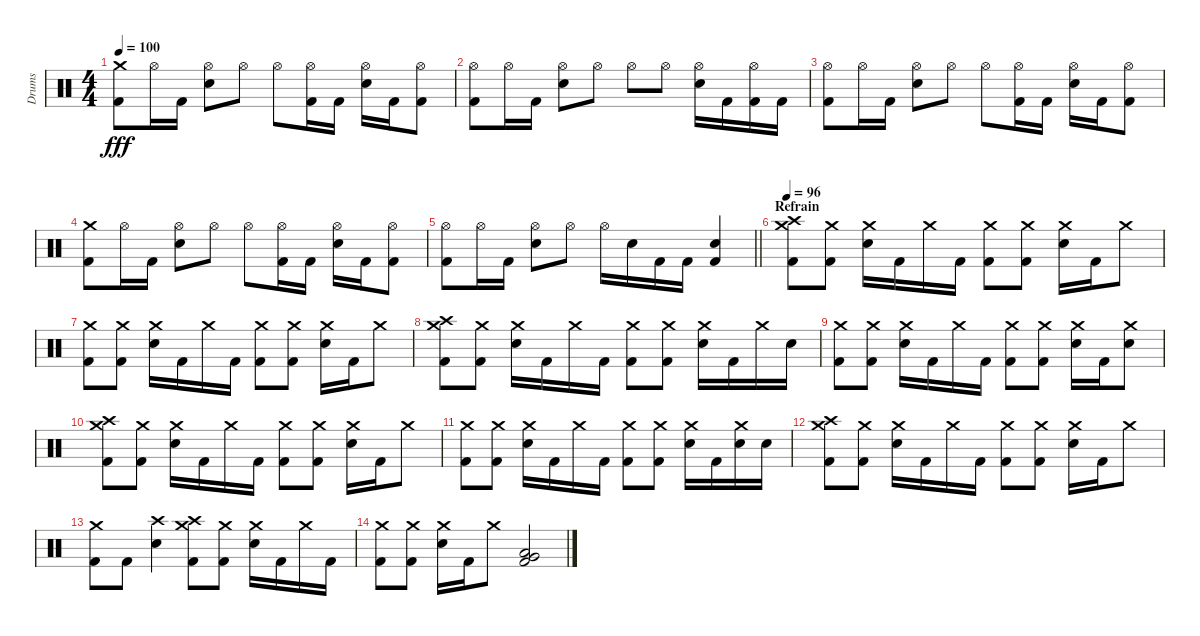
\track ("Drums" "Drums") {instrument percussion}
\staff {score}
\articulation defaults
\ts (4 4)
\tempo 100
\clef neutral
\ks c
("Crash medium (hit)" "Kick (hit) 2").8{dy fff} "Hi-Hat (open)".16 "Kick (hit) 2".16 ("Hi-Hat (open)" "Electric Snare (hit)").8 "Hi-Hat (open)".8 "Hi-Hat (open)".8 ("Hi-Hat (open)" "Kick (hit) 2").16 "Kick (hit) 2".16 ("Hi-Hat (open)" "Electric Snare (hit)").16 "Kick (hit) 2".16 ("Hi-Hat (open)" "Kick (hit) 2").8 |
("Hi-Hat (open)" "Kick (hit) 2").8 "Hi-Hat (open)".16 "Kick (hit) 2".16 ("Hi-Hat (open)" "Electric Snare (hit)").8 "Hi-Hat (open)".8 "Hi-Hat (open)".8 "Hi-Hat (open)".8 ("Hi-Hat (open)" "Electric Snare (hit)").16 "Kick (hit) 2".16 ("Hi-Hat (open)" "Kick (hit) 2").16 "Kick (hit) 2".16 |
("Hi-Hat (open)" "Kick (hit) 2").8 "Hi-Hat (open)".16 "Kick (hit) 2".16 ("Hi-Hat (open)" "Electric Snare (hit)").8 "Hi-Hat (open)".8 "Hi-Hat (open)".8 ("Hi-Hat (open)" "Kick (hit) 2").16 "Kick (hit) 2".16 ("Hi-Hat (open)" "Electric Snare (hit)").16 "Kick (hit) 2".16 ("Hi-Hat (open)" "Kick (hit) 2").8 |
("Crash medium (hit)" "Kick (hit) 2").8 "Hi-Hat (open)".16 "Kick (hit) 2".16 ("Hi-Hat (open)" "Electric Snare (hit)").8 "Hi-Hat (open)".8 "Hi-Hat (open)".8 ("Hi-Hat (open)" "Kick (hit) 2").16 "Kick (hit) 2".16 ("Hi-Hat (open)" "Electric Snare (hit)").16 "Kick (hit) 2".16 ("Hi-Hat (open)" "Kick (hit) 2").8 |
\barLineRight lightlight
("Hi-Hat (open)" "Kick (hit) 2").8 "Hi-Hat (open)".16 "Kick (hit) 2".16 ("Hi-Hat (open)" "Electric Snare (hit)").8 "Hi-Hat (open)".8 "Hi-Hat (open)".16 "Electric Snare (hit)".16 "Kick (hit) 2".16 "Kick (hit) 2".16 ("Kick (hit) 2" "Electric Snare (hit)").4 |
\section ("" "Refrain")
\tempo 96
("Crash medium (hit)" "Crash high (hit)" "Kick (hit) 2").8 ("Crash medium (hit)" "Kick (hit) 2").8 ("Crash medium (hit)" "Electric Snare (hit)").16 "Kick (hit) 2".16 "Crash medium (hit)".16 "Kick (hit) 2".16 ("Crash medium (hit)" "Kick (hit) 2").8 ("Crash medium (hit)" "Kick (hit) 2").8 ("Crash medium (hit)" "Electric Snare (hit)").16 "Kick (hit) 2".16 "Crash medium (hit)".8 |
("Crash medium (hit)" "Kick (hit) 2").8 ("Crash medium (hit)" "Kick (hit) 2").8 ("Crash medium (hit)" "Electric Snare (hit)").16 "Kick (hit) 2".16 "Crash medium (hit)".16 "Kick (hit) 2".16 ("Crash medium (hit)" "Kick (hit) 2").8 ("Crash medium (hit)" "Kick (hit) 2").8 ("Crash medium (hit)" "Electric Snare (hit)").16 "Kick (hit) 2".16 "Crash medium (hit)".8 |
("Crash medium (hit)" "Crash high (hit)" "Kick (hit) 2").8 ("Crash medium (hit)" "Kick (hit) 2").8 ("Crash medium (hit)" "Electric Snare (hit)").16 "Kick (hit) 2".16 "Crash medium (hit)".16 "Kick (hit) 2".16 ("Crash medium (hit)" "Kick (hit) 2").8 ("Crash medium (hit)" "Kick (hit) 2").8 ("Crash medium (hit)" "Electric Snare (hit)").16 "Kick (hit) 2".16 "Crash medium (hit)".16 "Electric Snare (hit)".16 |
("Crash medium (hit)" "Kick (hit) 2").8 ("Crash medium (hit)" "Kick (hit) 2").8 ("Crash medium (hit)" "Electric Snare (hit)").16 "Kick (hit) 2".16 "Crash medium (hit)".16 "Kick (hit) 2".16 ("Crash medium (hit)" "Kick (hit) 2").8 ("Crash medium (hit)" "Kick (hit) 2").8 ("Crash medium (hit)" "Electric Snare (hit)").16 "Kick (hit) 2".16 ("Crash medium (hit)" "Electric Snare (hit)").8 |
("Crash medium (hit)" "Crash high (hit)" "Kick (hit) 2").8 ("Crash medium (hit)" "Kick (hit) 2").8 ("Crash medium (hit)" "Electric Snare (hit)").16 "Kick (hit) 2".16 "Crash medium (hit)".16 "Kick (hit) 2".16 ("Crash medium (hit)" "Kick (hit) 2").8 ("Crash medium (hit)" "Kick (hit) 2").8 ("Crash medium (hit)" "Electric Snare (hit)").16 "Kick (hit) 2".16 "Crash medium (hit)".8 |
("Crash medium (hit)" "Kick (hit) 2").8 ("Crash medium (hit)" "Kick (hit) 2").8 ("Crash medium (hit)" "Electric Snare (hit)").16 "Kick (hit) 2".16 "Crash medium (hit)".16 "Kick (hit) 2".16 ("Crash medium (hit)" "Kick (hit) 2").8 ("Crash medium (hit)" "Kick (hit) 2").8 ("Crash medium (hit)" "Electric Snare (hit)").16 "Kick (hit) 2".16 ("Crash medium (hit)" "Electric Snare (hit)").16 "Electric Snare (hit)".16 |
("Crash medium (hit)" "Crash high (hit)" "Kick (hit) 2").8 ("Crash medium (hit)" "Kick (hit) 2").8 ("Crash medium (hit)" "Electric Snare (hit)").16 "Kick (hit) 2".16 "Crash medium (hit)".16 "Kick (hit) 2".16 ("Crash medium (hit)" "Kick (hit) 2").8 ("Crash medium (hit)" "Kick (hit) 2").8 ("Crash medium (hit)" "Electric Snare (hit)").16 "Kick (hit) 2".16 "Crash medium (hit)".8 |
("Crash medium (hit)" "Kick (hit) 2").8 "Kick (hit) 2".8 ("Crash high (hit)" "Snare (hit) 2").4 ("Crash medium (hit)" "Crash high (hit)" "Kick (hit) 2").8 ("Crash medium (hit)" "Kick (hit) 2").8 ("Crash medium (hit)" "Electric Snare (hit)").16 "Kick (hit) 2".16 "Crash medium (hit)".16 "Kick (hit) 2".16 |
("Crash medium (hit)" "Kick (hit) 2").8 ("Crash medium (hit)" "Kick (hit) 2").8 ("Crash medium (hit)" "Electric Snare (hit)").16 "Kick (hit) 2".16 "Crash medium (hit)".8 ("Kick (hit) 2" "Very Low Tom (hit)" "Low Tom (hit)").2
